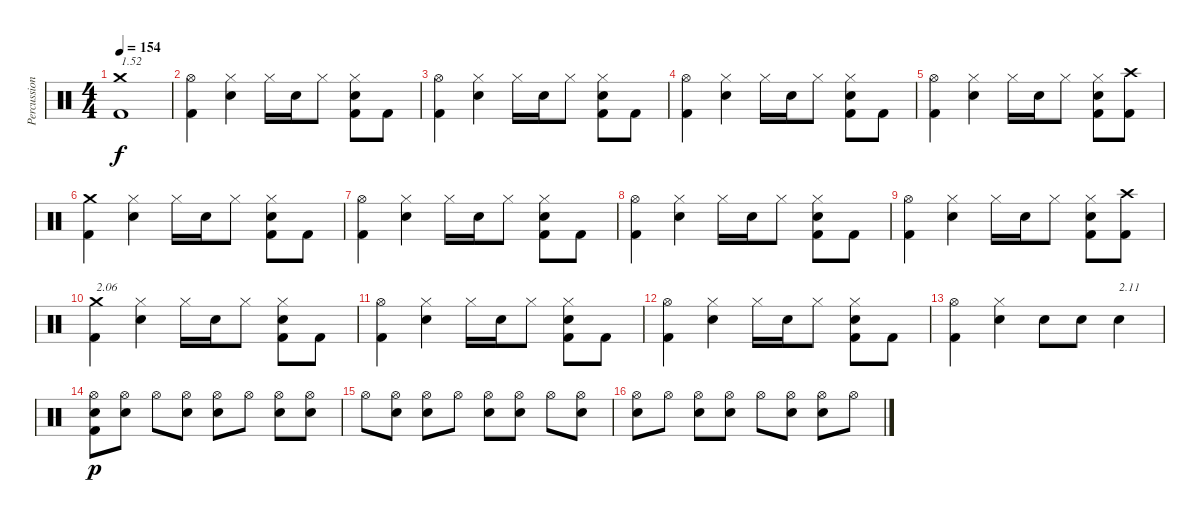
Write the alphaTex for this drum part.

\track ("Percussions" "Percussion") {instrument percussion}
\staff {score}
\articulation defaults
\ts (4 4)
\tempo 154
\clef neutral
\ks c
("Kick (hit) 2" "Crash medium (hit)").1{txt "1.52" dy f} |
("Kick (hit) 2" "Hi-Hat (open)").4 ("Electric Snare (hit)" "Hi-Hat (closed)").4 "Hi-Hat (closed)".16 "Electric Snare (hit)".16 "Hi-Hat (closed)".8 ("Kick (hit) 2" "Electric Snare (hit)" "Hi-Hat (closed)").8 "Kick (hit) 2".8 |
("Kick (hit) 2" "Hi-Hat (open)").4 ("Electric Snare (hit)" "Hi-Hat (closed)").4 "Hi-Hat (closed)".16 "Electric Snare (hit)".16 "Hi-Hat (closed)".8 ("Kick (hit) 2" "Electric Snare (hit)" "Hi-Hat (closed)").8 "Kick (hit) 2".8 |
("Kick (hit) 2" "Hi-Hat (open)").4 ("Electric Snare (hit)" "Hi-Hat (closed)").4 "Hi-Hat (closed)".16 "Electric Snare (hit)".16 "Hi-Hat (closed)".8 ("Kick (hit) 2" "Electric Snare (hit)" "Hi-Hat (closed)").8 "Kick (hit) 2".8 |
("Kick (hit) 2" "Hi-Hat (open)").4 ("Electric Snare (hit)" "Hi-Hat (closed)").4 "Hi-Hat (closed)".16 "Electric Snare (hit)".16 "Hi-Hat (closed)".8 ("Kick (hit) 2" "Electric Snare (hit)" "Hi-Hat (closed)").8 ("Kick (hit) 2" "Crash high (hit)").8 |
("Kick (hit) 2" "Crash medium (hit)").4 ("Electric Snare (hit)" "Hi-Hat (closed)").4 "Hi-Hat (closed)".16 "Electric Snare (hit)".16 "Hi-Hat (closed)".8 ("Kick (hit) 2" "Electric Snare (hit)" "Hi-Hat (closed)").8 "Kick (hit) 2".8 |
("Kick (hit) 2" "Hi-Hat (open)").4 ("Electric Snare (hit)" "Hi-Hat (closed)").4 "Hi-Hat (closed)".16 "Electric Snare (hit)".16 "Hi-Hat (closed)".8 ("Kick (hit) 2" "Electric Snare (hit)" "Hi-Hat (closed)").8 "Kick (hit) 2".8 |
("Kick (hit) 2" "Hi-Hat (open)").4 ("Electric Snare (hit)" "Hi-Hat (closed)").4 "Hi-Hat (closed)".16 "Electric Snare (hit)".16 "Hi-Hat (closed)".8 ("Kick (hit) 2" "Electric Snare (hit)" "Hi-Hat (closed)").8 "Kick (hit) 2".8 |
("Kick (hit) 2" "Hi-Hat (open)").4 ("Electric Snare (hit)" "Hi-Hat (closed)").4 "Hi-Hat (closed)".16 "Electric Snare (hit)".16 "Hi-Hat (closed)".8 ("Kick (hit) 2" "Electric Snare (hit)" "Hi-Hat (closed)").8 ("Kick (hit) 2" "Crash high (hit)").8 |
("Kick (hit) 2" "Crash medium (hit)").4{txt "2.06"} ("Electric Snare (hit)" "Hi-Hat (closed)").4 "Hi-Hat (closed)".16 "Electric Snare (hit)".16 "Hi-Hat (closed)".8 ("Kick (hit) 2" "Electric Snare (hit)" "Hi-Hat (closed)").8 "Kick (hit) 2".8 |
("Kick (hit) 2" "Hi-Hat (open)").4 ("Electric Snare (hit)" "Hi-Hat (closed)").4 "Hi-Hat (closed)".16 "Electric Snare (hit)".16 "Hi-Hat (closed)".8 ("Kick (hit) 2" "Electric Snare (hit)" "Hi-Hat (closed)").8 "Kick (hit) 2".8 |
("Kick (hit) 2" "Hi-Hat (open)").4 ("Electric Snare (hit)" "Hi-Hat (closed)").4 "Hi-Hat (closed)".16 "Electric Snare (hit)".16 "Hi-Hat (closed)".8 ("Kick (hit) 2" "Electric Snare (hit)" "Hi-Hat (closed)").8 "Kick (hit) 2".8 |
("Kick (hit) 2" "Hi-Hat (open)").4 ("Electric Snare (hit)" "Hi-Hat (closed)").4 "Electric Snare (hit)".8 "Electric Snare (hit)".8 "Electric Snare (hit)".4{txt "2.11"} |
("Kick (hit) 2" "Electric Snare (hit)" "Hi-Hat (open)").8{dy p} ("Electric Snare (hit)" "Hi-Hat (open)").8 "Hi-Hat (open)".8 ("Electric Snare (hit)" "Hi-Hat (open)").8 ("Electric Snare (hit)" "Hi-Hat (open)").8 "Hi-Hat (open)".8 ("Electric Snare (hit)" "Hi-Hat (open)").8 ("Electric Snare (hit)" "Hi-Hat (open)").8 |
"Hi-Hat (open)".8 ("Electric Snare (hit)" "Hi-Hat (open)").8 ("Electric Snare (hit)" "Hi-Hat (open)").8 "Hi-Hat (open)".8 ("Electric Snare (hit)" "Hi-Hat (open)").8 ("Electric Snare (hit)" "Hi-Hat (open)").8 "Hi-Hat (open)".8 ("Electric Snare (hit)" "Hi-Hat (open)").8 |
("Electric Snare (hit)" "Hi-Hat (open)").8 "Hi-Hat (open)".8 ("Electric Snare (hit)" "Hi-Hat (open)").8 ("Electric Snare (hit)" "Hi-Hat (open)").8 "Hi-Hat (open)".8 ("Electric Snare (hit)" "Hi-Hat (open)").8 ("Electric Snare (hit)" "Hi-Hat (open)").8 "Hi-Hat (open)".8
